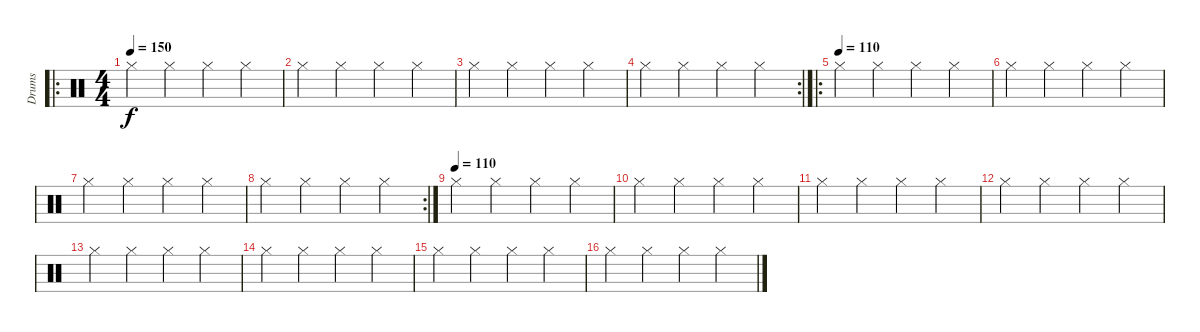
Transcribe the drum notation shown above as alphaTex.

\track ("Drums" "Drums") {instrument percussion}
\staff {score}
\articulation defaults
\ro
\ts (4 4)
\tempo 150
\tempo 110
\tempo 150
\clef neutral
\ks c "Hi-Hat (closed)".4{dy f} "Hi-Hat (closed)".4 "Hi-Hat (closed)".4 "Hi-Hat (closed)".4
|
"Hi-Hat (closed)".4 "Hi-Hat (closed)".4 "Hi-Hat (closed)".4 "Hi-Hat (closed)".4 |
"Hi-Hat (closed)".4 "Hi-Hat (closed)".4 "Hi-Hat (closed)".4 "Hi-Hat (closed)".4 |
\rc 2 "Hi-Hat (closed)".4 "Hi-Hat (closed)".4 "Hi-Hat (closed)".4 "Hi-Hat (closed)".4
|
\ro
\tempo (110)
"Hi-Hat (closed)".4 "Hi-Hat (closed)".4 "Hi-Hat (closed)".4 "Hi-Hat (closed)".4 |
"Hi-Hat (closed)".4 "Hi-Hat (closed)".4 "Hi-Hat (closed)".4 "Hi-Hat (closed)".4 |
"Hi-Hat (closed)".4 "Hi-Hat (closed)".4 "Hi-Hat (closed)".4 "Hi-Hat (closed)".4 |
\rc 2 "Hi-Hat (closed)".4 "Hi-Hat (closed)".4 "Hi-Hat (closed)".4 "Hi-Hat (closed)".4
|
\tempo (110)
"Hi-Hat (closed)".4 "Hi-Hat (closed)".4 "Hi-Hat (closed)".4 "Hi-Hat (closed)".4 |
"Hi-Hat (closed)".4 "Hi-Hat (closed)".4 "Hi-Hat (closed)".4 "Hi-Hat (closed)".4 |
"Hi-Hat (closed)".4 "Hi-Hat (closed)".4 "Hi-Hat (closed)".4 "Hi-Hat (closed)".4 |
"Hi-Hat (closed)".4 "Hi-Hat (closed)".4 "Hi-Hat (closed)".4 "Hi-Hat (closed)".4 |
"Hi-Hat (closed)".4 "Hi-Hat (closed)".4 "Hi-Hat (closed)".4 "Hi-Hat (closed)".4 |
"Hi-Hat (closed)".4 "Hi-Hat (closed)".4 "Hi-Hat (closed)".4 "Hi-Hat (closed)".4 |
"Hi-Hat (closed)".4 "Hi-Hat (closed)".4 "Hi-Hat (closed)".4 "Hi-Hat (closed)".4 |
"Hi-Hat (closed)".4 "Hi-Hat (closed)".4 "Hi-Hat (closed)".4 "Hi-Hat (closed)".4
